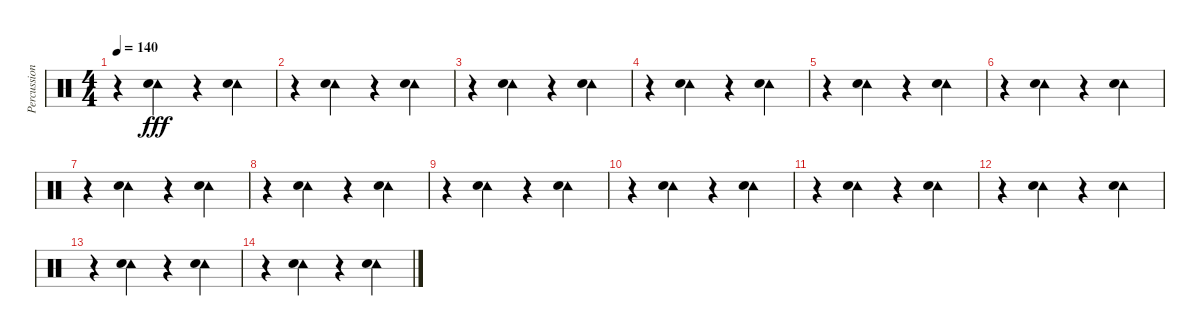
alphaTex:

\track ("Percussion" "Percussion") {instrument percussion}
\staff {score}
\articulation defaults
\ts (4 4)
\tempo 140
\clef neutral
\ks c
r.4{dy fff} ("Tambourine (hit)" "Hand Clap (hit)").4 r.4 ("Tambourine (hit)" "Hand Clap (hit)").4 |
r.4 ("Tambourine (hit)" "Hand Clap (hit)").4 r.4 ("Tambourine (hit)" "Hand Clap (hit)").4 |
r.4 ("Tambourine (hit)" "Hand Clap (hit)").4 r.4 ("Tambourine (hit)" "Hand Clap (hit)").4 |
r.4 ("Tambourine (hit)" "Hand Clap (hit)").4 r.4 ("Tambourine (hit)" "Hand Clap (hit)").4 |
r.4 ("Tambourine (hit)" "Hand Clap (hit)").4 r.4 ("Tambourine (hit)" "Hand Clap (hit)").4 |
r.4 ("Tambourine (hit)" "Hand Clap (hit)").4 r.4 ("Tambourine (hit)" "Hand Clap (hit)").4 |
r.4 ("Tambourine (hit)" "Hand Clap (hit)").4 r.4 ("Tambourine (hit)" "Hand Clap (hit)").4 |
r.4 ("Tambourine (hit)" "Hand Clap (hit)").4 r.4 ("Tambourine (hit)" "Hand Clap (hit)").4 |
r.4 ("Tambourine (hit)" "Hand Clap (hit)").4 r.4 ("Tambourine (hit)" "Hand Clap (hit)").4 |
r.4 ("Tambourine (hit)" "Hand Clap (hit)").4 r.4 ("Tambourine (hit)" "Hand Clap (hit)").4 |
r.4{volume 0} ("Tambourine (hit)" "Hand Clap (hit)").4 r.4 ("Tambourine (hit)" "Hand Clap (hit)").4 |
r.4 ("Tambourine (hit)" "Hand Clap (hit)").4 r.4 ("Tambourine (hit)" "Hand Clap (hit)").4 |
r.4 ("Tambourine (hit)" "Hand Clap (hit)").4 r.4 ("Tambourine (hit)" "Hand Clap (hit)").4 |
r.4 ("Tambourine (hit)" "Hand Clap (hit)").4 r.4 ("Tambourine (hit)" "Hand Clap (hit)").4
